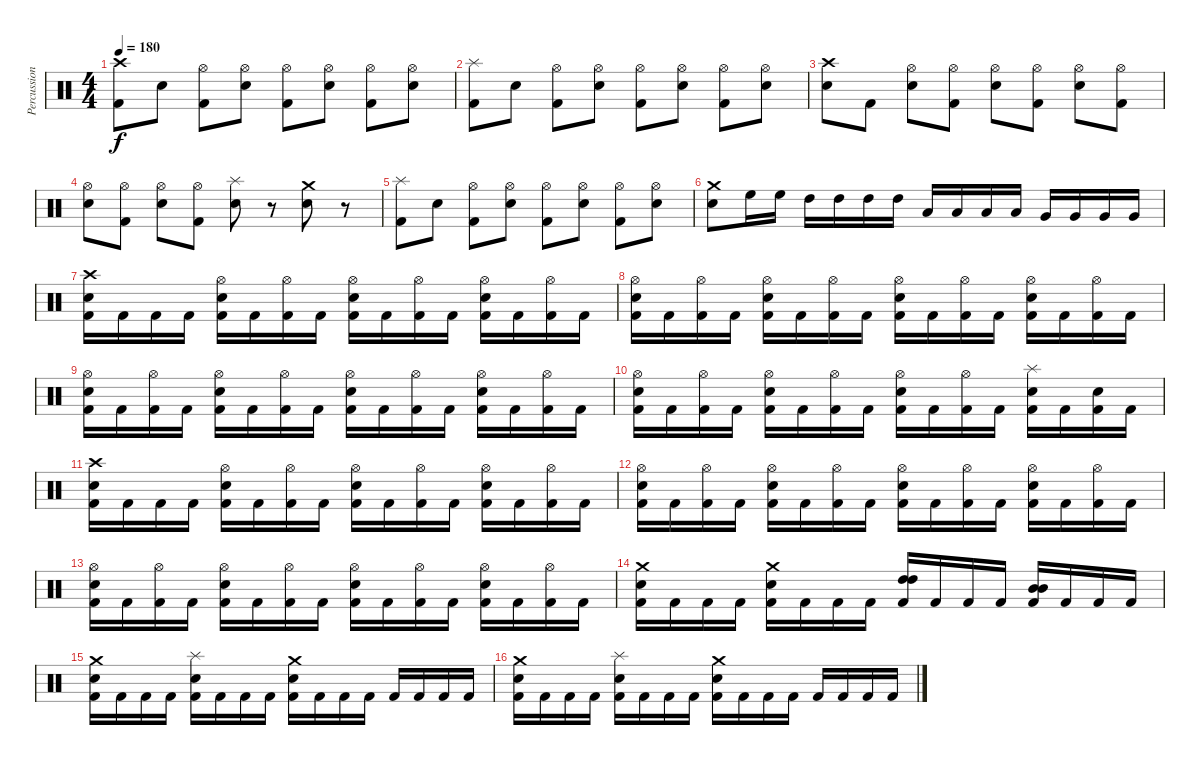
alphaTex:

\track ("Percussion" "Percussion") {instrument percussion}
\staff {score}
\articulation defaults
\ts (4 4)
\tempo 180
\clef neutral
\ks c
("Crash high (hit)" "Kick (hit) 2").8{dy f} "Snare (hit) 2".8 ("Hi-Hat (open)" "Kick (hit) 2").8 ("Hi-Hat (open)" "Snare (hit) 2").8 ("Hi-Hat (open)" "Kick (hit) 2").8 ("Hi-Hat (open)" "Snare (hit) 2").8 ("Hi-Hat (open)" "Kick (hit) 2").8 ("Hi-Hat (open)" "Snare (hit) 2").8 |
("Splash (hit)" "Kick (hit) 2").8 "Snare (hit) 2".8 ("Hi-Hat (open)" "Kick (hit) 2").8 ("Hi-Hat (open)" "Snare (hit) 2").8 ("Hi-Hat (open)" "Kick (hit) 2").8 ("Hi-Hat (open)" "Snare (hit) 2").8 ("Hi-Hat (open)" "Kick (hit) 2").8 ("Hi-Hat (open)" "Snare (hit) 2").8 |
("Crash high (hit)" "Snare (hit) 2").8 "Kick (hit) 2".8 ("Hi-Hat (open)" "Snare (hit) 2").8 ("Hi-Hat (open)" "Kick (hit) 2").8 ("Hi-Hat (open)" "Snare (hit) 2").8 ("Hi-Hat (open)" "Kick (hit) 2").8 ("Hi-Hat (open)" "Snare (hit) 2").8 ("Hi-Hat (open)" "Kick (hit) 2").8 |
("Hi-Hat (open)" "Snare (hit) 2").8 ("Hi-Hat (open)" "Kick (hit) 2").8 ("Hi-Hat (open)" "Snare (hit) 2").8 ("Hi-Hat (open)" "Kick (hit) 2").8 ("Splash (hit)" "Snare (hit) 2").8 r.8 ("Crash medium (hit)" "Snare (hit) 2").8 r.8 |
("Splash (hit)" "Kick (hit) 2").8 "Snare (hit) 2".8 ("Hi-Hat (open)" "Kick (hit) 2").8 ("Hi-Hat (open)" "Snare (hit) 2").8 ("Hi-Hat (open)" "Kick (hit) 2").8 ("Hi-Hat (open)" "Snare (hit) 2").8 ("Hi-Hat (open)" "Kick (hit) 2").8 ("Hi-Hat (open)" "Snare (hit) 2").8 |
("Crash medium (hit)" "Snare (hit) 2").8 "High Floor Tom (hit)".16 "High Floor Tom (hit)".16 "High Tom (hit)".16 "High Tom (hit)".16 "High Tom (hit)".16 "High Tom (hit)".16 "Low Tom (hit)".16 "Low Tom (hit)".16 "Low Tom (hit)".16 "Low Tom (hit)".16 "Very Low Tom (hit)".16 "Very Low Tom (hit)".16 "Very Low Tom (hit)".16 "Very Low Tom (hit)".16 |
("Crash high (hit)" "Snare (hit) 2" "Kick (hit) 2").16 "Kick (hit) 2".16 "Kick (hit) 2".16 "Kick (hit) 2".16 ("Hi-Hat (open)" "Snare (hit) 2" "Kick (hit) 2").16 "Kick (hit) 2".16 ("Hi-Hat (open)" "Kick (hit) 2").16 "Kick (hit) 2".16 ("Hi-Hat (open)" "Snare (hit) 2" "Kick (hit) 2").16 "Kick (hit) 2".16 ("Hi-Hat (open)" "Kick (hit) 2").16 "Kick (hit) 2".16 ("Hi-Hat (open)" "Snare (hit) 2" "Kick (hit) 2").16 "Kick (hit) 2".16 ("Hi-Hat (open)" "Kick (hit) 2").16 "Kick (hit) 2".16 |
("Hi-Hat (open)" "Snare (hit) 2" "Kick (hit) 2").16 "Kick (hit) 2".16 ("Hi-Hat (open)" "Kick (hit) 2").16 "Kick (hit) 2".16 ("Hi-Hat (open)" "Snare (hit) 2" "Kick (hit) 2").16 "Kick (hit) 2".16 ("Hi-Hat (open)" "Kick (hit) 2").16 "Kick (hit) 2".16 ("Hi-Hat (open)" "Snare (hit) 2" "Kick (hit) 2").16 "Kick (hit) 2".16 ("Hi-Hat (open)" "Kick (hit) 2").16 "Kick (hit) 2".16 ("Hi-Hat (open)" "Snare (hit) 2" "Kick (hit) 2").16 "Kick (hit) 2".16 ("Hi-Hat (open)" "Kick (hit) 2").16 "Kick (hit) 2".16 |
("Hi-Hat (open)" "Snare (hit) 2" "Kick (hit) 2").16 "Kick (hit) 2".16 ("Hi-Hat (open)" "Kick (hit) 2").16 "Kick (hit) 2".16 ("Hi-Hat (open)" "Snare (hit) 2" "Kick (hit) 2").16 "Kick (hit) 2".16 ("Hi-Hat (open)" "Kick (hit) 2").16 "Kick (hit) 2".16 ("Hi-Hat (open)" "Snare (hit) 2" "Kick (hit) 2").16 "Kick (hit) 2".16 ("Hi-Hat (open)" "Kick (hit) 2").16 "Kick (hit) 2".16 ("Hi-Hat (open)" "Snare (hit) 2" "Kick (hit) 2").16 "Kick (hit) 2".16 ("Hi-Hat (open)" "Kick (hit) 2").16 "Kick (hit) 2".16 |
("Hi-Hat (open)" "Snare (hit) 2" "Kick (hit) 2").16 "Kick (hit) 2".16 ("Hi-Hat (open)" "Kick (hit) 2").16 "Kick (hit) 2".16 ("Hi-Hat (open)" "Snare (hit) 2" "Kick (hit) 2").16 "Kick (hit) 2".16 ("Hi-Hat (open)" "Kick (hit) 2").16 "Kick (hit) 2".16 ("Hi-Hat (open)" "Snare (hit) 2" "Kick (hit) 2").16 "Kick (hit) 2".16 ("Hi-Hat (open)" "Kick (hit) 2").16 "Kick (hit) 2".16 ("Splash (hit)" "Snare (hit) 2" "Kick (hit) 2").16 "Kick (hit) 2".16 ("Snare (hit)" "Kick (hit) 2").16 "Kick (hit) 2".16 |
("Crash high (hit)" "Snare (hit) 2" "Kick (hit) 2").16 "Kick (hit) 2".16 "Kick (hit) 2".16 "Kick (hit) 2".16 ("Hi-Hat (open)" "Snare (hit) 2" "Kick (hit) 2").16 "Kick (hit) 2".16 ("Hi-Hat (open)" "Kick (hit) 2").16 "Kick (hit) 2".16 ("Hi-Hat (open)" "Snare (hit) 2" "Kick (hit) 2").16 "Kick (hit) 2".16 ("Hi-Hat (open)" "Kick (hit) 2").16 "Kick (hit) 2".16 ("Hi-Hat (open)" "Snare (hit) 2" "Kick (hit) 2").16 "Kick (hit) 2".16 ("Hi-Hat (open)" "Kick (hit) 2").16 "Kick (hit) 2".16 |
("Hi-Hat (open)" "Snare (hit) 2" "Kick (hit) 2").16 "Kick (hit) 2".16 ("Hi-Hat (open)" "Kick (hit) 2").16 "Kick (hit) 2".16 ("Hi-Hat (open)" "Snare (hit) 2" "Kick (hit) 2").16 "Kick (hit) 2".16 ("Hi-Hat (open)" "Kick (hit) 2").16 "Kick (hit) 2".16 ("Hi-Hat (open)" "Snare (hit) 2" "Kick (hit) 2").16 "Kick (hit) 2".16 ("Hi-Hat (open)" "Kick (hit) 2").16 "Kick (hit) 2".16 ("Hi-Hat (open)" "Snare (hit) 2" "Kick (hit) 2").16 "Kick (hit) 2".16 ("Hi-Hat (open)" "Kick (hit) 2").16 "Kick (hit) 2".16 |
("Hi-Hat (open)" "Snare (hit) 2" "Kick (hit) 2").16 "Kick (hit) 2".16 ("Hi-Hat (open)" "Kick (hit) 2").16 "Kick (hit) 2".16 ("Hi-Hat (open)" "Snare (hit) 2" "Kick (hit) 2").16 "Kick (hit) 2".16 ("Hi-Hat (open)" "Kick (hit) 2").16 "Kick (hit) 2".16 ("Hi-Hat (open)" "Snare (hit) 2" "Kick (hit) 2").16 "Kick (hit) 2".16 ("Hi-Hat (open)" "Kick (hit) 2").16 "Kick (hit) 2".16 ("Hi-Hat (open)" "Snare (hit) 2" "Kick (hit) 2").16 "Kick (hit) 2".16 ("Hi-Hat (open)" "Kick (hit) 2").16 "Kick (hit) 2".16 |
("Crash medium (hit)" "Snare (hit) 2" "Kick (hit) 2").16 "Kick (hit) 2".16 "Kick (hit) 2".16 "Kick (hit) 2".16 ("Crash medium (hit)" "Snare (hit) 2" "Kick (hit) 2").16 "Kick (hit) 2".16 "Kick (hit) 2".16 "Kick (hit) 2".16 ("High Tom (hit)" "High Tom (hit)" "Kick (hit) 2").16 "Kick (hit) 2".16 "Kick (hit) 2".16 "Kick (hit) 2".16 ("Mid Tom (hit)" "Mid Tom (hit)" "Kick (hit) 2").16 "Kick (hit) 2".16 "Kick (hit) 2".16 "Kick (hit) 2".16 |
("Crash medium (hit)" "Snare (hit) 2" "Kick (hit) 2").16 "Kick (hit) 2".16 "Kick (hit) 2".16 "Kick (hit) 2".16 ("Splash (hit)" "Snare (hit) 2" "Kick (hit) 2").16 "Kick (hit) 2".16 "Kick (hit) 2".16 "Kick (hit) 2".16 ("Crash medium (hit)" "Snare (hit) 2" "Kick (hit) 2").16 "Kick (hit) 2".16 "Kick (hit) 2".16 "Kick (hit) 2".16 "Kick (hit) 2".16 "Kick (hit) 2".16 "Kick (hit) 2".16 "Kick (hit) 2".16 |
("Crash medium (hit)" "Snare (hit) 2" "Kick (hit) 2").16 "Kick (hit) 2".16 "Kick (hit) 2".16 "Kick (hit) 2".16 ("Splash (hit)" "Snare (hit) 2" "Kick (hit) 2").16 "Kick (hit) 2".16 "Kick (hit) 2".16 "Kick (hit) 2".16 ("Crash medium (hit)" "Snare (hit) 2" "Kick (hit) 2").16 "Kick (hit) 2".16 "Kick (hit) 2".16 "Kick (hit) 2".16 "Kick (hit) 2".16 "Kick (hit) 2".16 "Kick (hit) 2".16 "Kick (hit) 2".16
